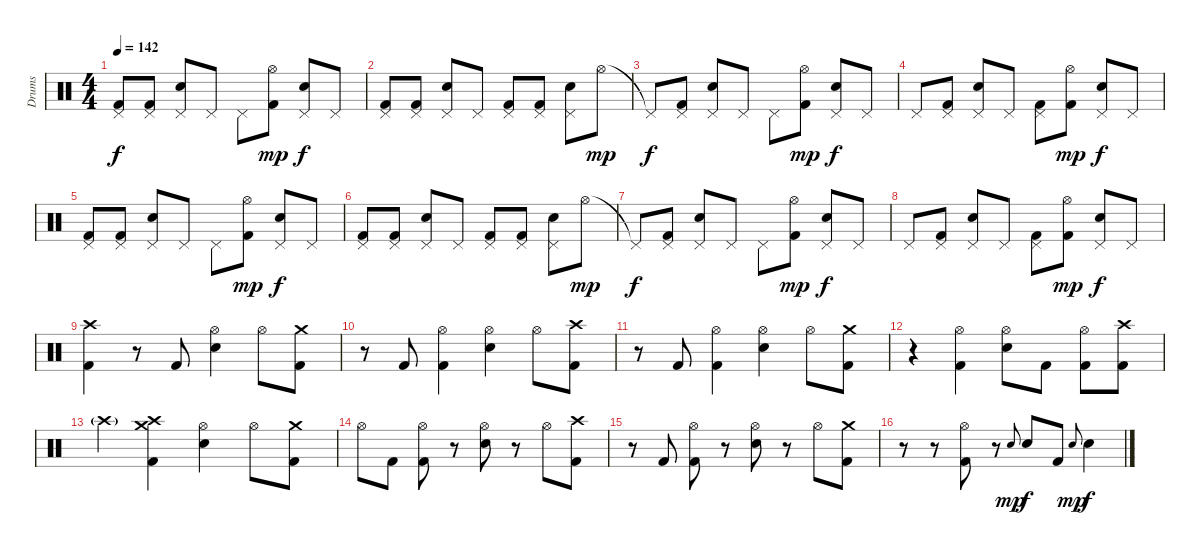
\track ("Drums" "Drums") {instrument percussion}
\staff {score}
\articulation defaults
\ts (4 4)
\tempo 142
\clef neutral
\ks c
("Pedal Hi-Hat (hit)" "Kick (hit) 2").8{dy f} ("Pedal Hi-Hat (hit)" "Kick (hit) 2").8 ("Pedal Hi-Hat (hit)" "Electric Snare (hit)").8 "Pedal Hi-Hat (hit)".8 "Pedal Hi-Hat (hit)".8 ("Hi-Hat (open)" "Kick (hit) 2").8{dy mp} ("Pedal Hi-Hat (hit)" "Electric Snare (hit)").8{dy f} "Pedal Hi-Hat (hit)".8 |
("Pedal Hi-Hat (hit)" "Kick (hit) 2").8 ("Pedal Hi-Hat (hit)" "Kick (hit) 2").8 ("Pedal Hi-Hat (hit)" "Electric Snare (hit)").8 "Pedal Hi-Hat (hit)".8 ("Pedal Hi-Hat (hit)" "Kick (hit) 2").8 ("Pedal Hi-Hat (hit)" "Kick (hit) 2").8 ("Pedal Hi-Hat (hit)" "Electric Snare (hit)").8 "Hi-Hat (open)".8{dy mp} |
"Pedal Hi-Hat (hit)"{t}.8{dy f} ("Pedal Hi-Hat (hit)" "Kick (hit) 2").8 ("Pedal Hi-Hat (hit)" "Electric Snare (hit)").8 "Pedal Hi-Hat (hit)".8 "Pedal Hi-Hat (hit)".8 ("Hi-Hat (open)" "Kick (hit) 2").8{dy mp} ("Pedal Hi-Hat (hit)" "Electric Snare (hit)").8{dy f} "Pedal Hi-Hat (hit)".8 |
"Pedal Hi-Hat (hit)".8 ("Pedal Hi-Hat (hit)" "Kick (hit) 2").8 ("Pedal Hi-Hat (hit)" "Electric Snare (hit)").8 "Pedal Hi-Hat (hit)".8 ("Pedal Hi-Hat (hit)" "Kick (hit) 2").8 ("Hi-Hat (open)" "Kick (hit) 2").8{dy mp} ("Pedal Hi-Hat (hit)" "Electric Snare (hit)").8{dy f} "Pedal Hi-Hat (hit)".8 |
("Pedal Hi-Hat (hit)" "Kick (hit) 2").8 ("Pedal Hi-Hat (hit)" "Kick (hit) 2").8 ("Pedal Hi-Hat (hit)" "Electric Snare (hit)").8 "Pedal Hi-Hat (hit)".8 "Pedal Hi-Hat (hit)".8 ("Hi-Hat (open)" "Kick (hit) 2").8{dy mp} ("Pedal Hi-Hat (hit)" "Electric Snare (hit)").8{dy f} "Pedal Hi-Hat (hit)".8 |
("Pedal Hi-Hat (hit)" "Kick (hit) 2").8 ("Pedal Hi-Hat (hit)" "Kick (hit) 2").8 ("Pedal Hi-Hat (hit)" "Electric Snare (hit)").8 "Pedal Hi-Hat (hit)".8 ("Pedal Hi-Hat (hit)" "Kick (hit) 2").8 ("Pedal Hi-Hat (hit)" "Kick (hit) 2").8 ("Pedal Hi-Hat (hit)" "Electric Snare (hit)").8 "Hi-Hat (open)".8{dy mp} |
"Pedal Hi-Hat (hit)"{t}.8{dy f} ("Pedal Hi-Hat (hit)" "Kick (hit) 2").8 ("Pedal Hi-Hat (hit)" "Electric Snare (hit)").8 "Pedal Hi-Hat (hit)".8 "Pedal Hi-Hat (hit)".8 ("Hi-Hat (open)" "Kick (hit) 2").8{dy mp} ("Pedal Hi-Hat (hit)" "Electric Snare (hit)").8{dy f} "Pedal Hi-Hat (hit)".8 |
"Pedal Hi-Hat (hit)".8 ("Pedal Hi-Hat (hit)" "Kick (hit) 2").8 ("Pedal Hi-Hat (hit)" "Electric Snare (hit)").8 "Pedal Hi-Hat (hit)".8 ("Pedal Hi-Hat (hit)" "Kick (hit) 2").8 ("Hi-Hat (open)" "Kick (hit) 2").8{dy mp} ("Pedal Hi-Hat (hit)" "Electric Snare (hit)").8{dy f} "Pedal Hi-Hat (hit)".8 |
("Crash high (hit)" "Kick (hit) 2").4 r.8 "Kick (hit) 2".8 ("Hi-Hat (open)" "Electric Snare (hit)").4 "Hi-Hat (open)".8 ("Crash medium (hit)" "Kick (hit) 2").8 |
r.8 "Kick (hit) 2".8 ("Hi-Hat (open)" "Kick (hit) 2").4 ("Hi-Hat (open)" "Electric Snare (hit)").4 "Hi-Hat (open)".8 ("Crash high (hit)" "Kick (hit) 2").8 |
r.8 "Kick (hit) 2".8 ("Hi-Hat (open)" "Kick (hit) 2").4 ("Hi-Hat (open)" "Electric Snare (hit)").4 "Hi-Hat (open)".8 ("Crash medium (hit)" "Kick (hit) 2").8 |
r.4 ("Hi-Hat (open)" "Kick (hit) 2").4 ("Hi-Hat (open)" "Electric Snare (hit)").8 "Kick (hit) 2".8 ("Hi-Hat (open)" "Kick (hit) 2").8 ("Crash high (hit)" "Kick (hit) 2").8 |
"Crash high (hit)"{g}.4 ("Crash high (hit)" "Crash medium (hit)" "Kick (hit) 2").4 ("Hi-Hat (open)" "Electric Snare (hit)").4 "Hi-Hat (open)".8 ("Crash medium (hit)" "Kick (hit) 2").8 |
"Hi-Hat (open)".8 "Kick (hit) 2".8 ("Hi-Hat (open)" "Kick (hit) 2").8 r.8 ("Hi-Hat (open)" "Electric Snare (hit)").8 r.8 "Hi-Hat (open)".8 ("Crash high (hit)" "Kick (hit) 2").8 |
r.8 "Kick (hit) 2".8 ("Hi-Hat (open)" "Kick (hit) 2").8 r.8 ("Hi-Hat (open)" "Electric Snare (hit)").8 r.8 "Hi-Hat (open)".8 ("Crash medium (hit)" "Kick (hit) 2").8 |
r.8 r.8 ("Hi-Hat (open)" "Kick (hit) 2").8 r.8 "Electric Snare (hit)".8{gr onbeat dy mp} "Electric Snare (hit)".8{dy f} "Kick (hit) 2".8 "Electric Snare (hit)".8{gr onbeat dy mp} "Electric Snare (hit)".4{dy f}
